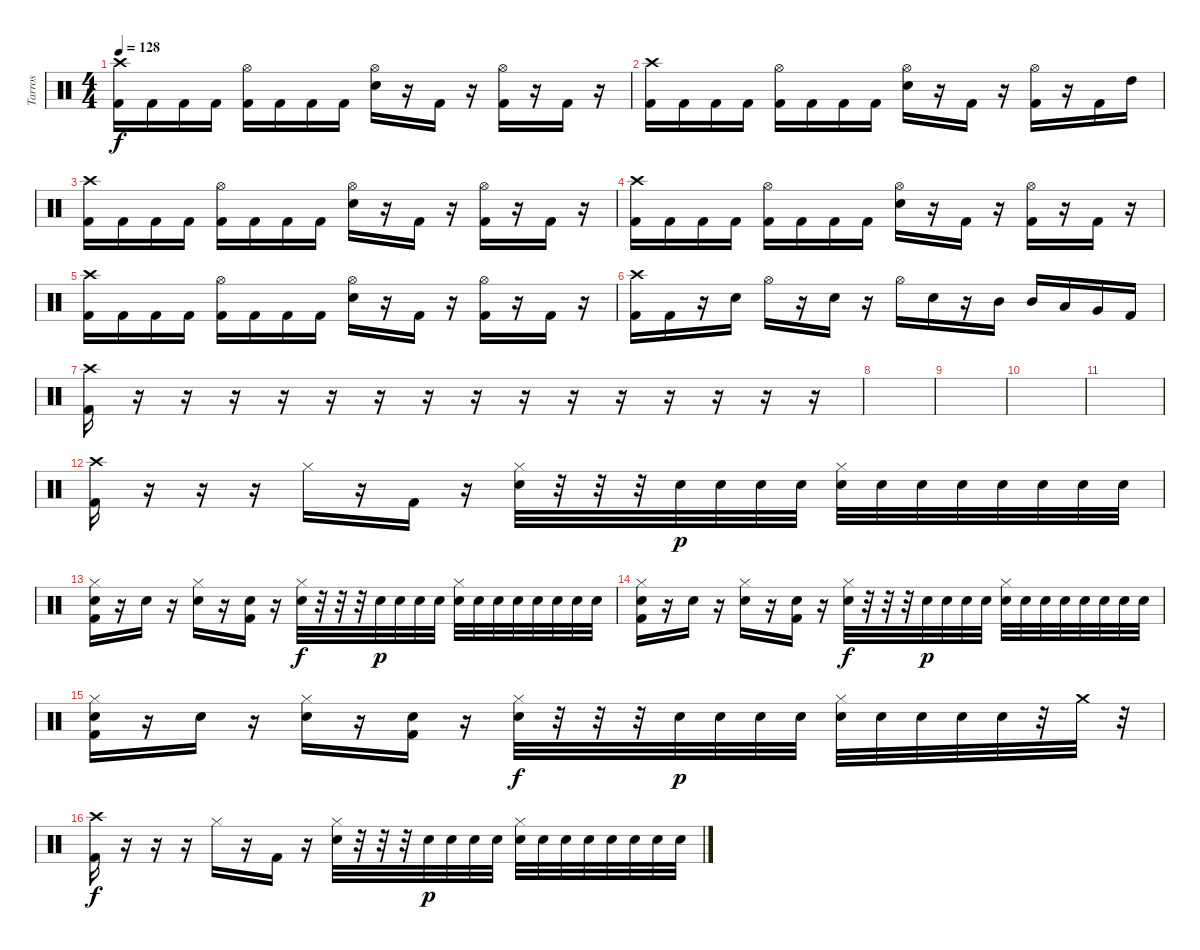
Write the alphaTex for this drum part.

\track ("Tarros" "Tarros") {instrument percussion}
\staff {score}
\articulation defaults
\ts (4 4)
\tempo 128
\clef neutral
\ks c
("Crash high (hit)" "Kick (hit) 2").16{dy f} "Kick (hit) 2".16 "Kick (hit) 2".16 "Kick (hit) 2".16 ("Hi-Hat (open)" "Kick (hit) 2").16 "Kick (hit) 2".16 "Kick (hit) 2".16 "Kick (hit) 2".16 ("Hi-Hat (open)" "Electric Snare (hit)").16 r.16 "Kick (hit) 2".16 r.16 ("Hi-Hat (open)" "Kick (hit) 2").16 r.16 "Kick (hit) 2".16 r.16 |
("Crash high (hit)" "Kick (hit) 2").16 "Kick (hit) 2".16 "Kick (hit) 2".16 "Kick (hit) 2".16 ("Hi-Hat (open)" "Kick (hit) 2").16 "Kick (hit) 2".16 "Kick (hit) 2".16 "Kick (hit) 2".16 ("Hi-Hat (open)" "Electric Snare (hit)").16 r.16 "Kick (hit) 2".16 r.16 ("Hi-Hat (open)" "Kick (hit) 2").16 r.16 "Kick (hit) 2".16 "High Tom (hit)".16 |
("Crash high (hit)" "Kick (hit) 2").16 "Kick (hit) 2".16 "Kick (hit) 2".16 "Kick (hit) 2".16 ("Hi-Hat (open)" "Kick (hit) 2").16 "Kick (hit) 2".16 "Kick (hit) 2".16 "Kick (hit) 2".16 ("Hi-Hat (open)" "Electric Snare (hit)").16 r.16 "Kick (hit) 2".16 r.16 ("Hi-Hat (open)" "Kick (hit) 2").16 r.16 "Kick (hit) 2".16 r.16 |
("Crash high (hit)" "Kick (hit) 2").16 "Kick (hit) 2".16 "Kick (hit) 2".16 "Kick (hit) 2".16 ("Hi-Hat (open)" "Kick (hit) 2").16 "Kick (hit) 2".16 "Kick (hit) 2".16 "Kick (hit) 2".16 ("Hi-Hat (open)" "Electric Snare (hit)").16 r.16 "Kick (hit) 2".16 r.16 ("Hi-Hat (open)" "Kick (hit) 2").16 r.16 "Kick (hit) 2".16 r.16 |
("Crash high (hit)" "Kick (hit) 2").16 "Kick (hit) 2".16 "Kick (hit) 2".16 "Kick (hit) 2".16 ("Hi-Hat (open)" "Kick (hit) 2").16 "Kick (hit) 2".16 "Kick (hit) 2".16 "Kick (hit) 2".16 ("Hi-Hat (open)" "Electric Snare (hit)").16 r.16 "Kick (hit) 2".16 r.16 ("Hi-Hat (open)" "Kick (hit) 2").16 r.16 "Kick (hit) 2".16 r.16 |
("Crash high (hit)" "Kick (hit) 2").16 "Kick (hit) 2".16 r.16 "Electric Snare (hit)".16 "Hi-Hat (open)".16 r.16 "Electric Snare (hit)".16 r.16 "Hi-Hat (open)".16 "Electric Snare (hit)".16 r.16 "Mid Tom (hit)".16 "Mid Tom (hit)".16 "Low Tom (hit)".16 "Very Low Tom (hit)".16 "Kick (hit) 2".16 |
("Crash high (hit)" "Kick (hit) 2").16 r.16 r.16 r.16 r.16 r.16 r.16 r.16 r.16 r.16 r.16 r.16 r.16 r.16 r.16 r.16 |
|
|
|
|
("Crash high (hit)" "Kick (hit) 2").16 r.16 r.16 r.16 "Hi-Hat (closed)".16 r.16 "Kick (hit) 2".16 r.16 ("Hi-Hat (closed)" "Electric Snare (hit)").32 r.32 r.32 r.32 "Electric Snare (hit)".32{dy p} "Electric Snare (hit)".32 "Electric Snare (hit)".32 "Electric Snare (hit)".32 ("Hi-Hat (closed)" "Electric Snare (hit)").32 "Electric Snare (hit)".32 "Electric Snare (hit)".32 "Electric Snare (hit)".32 "Electric Snare (hit)".32 "Electric Snare (hit)".32 "Electric Snare (hit)".32 "Electric Snare (hit)".32 |
("Hi-Hat (closed)" "Electric Snare (hit)" "Kick (hit) 2").16 r.16 "Electric Snare (hit)".16 r.16 ("Hi-Hat (closed)" "Electric Snare (hit)").16 r.16 ("Electric Snare (hit)" "Kick (hit) 2").16 r.16 ("Hi-Hat (closed)" "Electric Snare (hit)").32{dy f} r.32 r.32 r.32 "Electric Snare (hit)".32{dy p} "Electric Snare (hit)".32 "Electric Snare (hit)".32 "Electric Snare (hit)".32 ("Hi-Hat (closed)" "Electric Snare (hit)").32 "Electric Snare (hit)".32 "Electric Snare (hit)".32 "Electric Snare (hit)".32 "Electric Snare (hit)".32 "Electric Snare (hit)".32 "Electric Snare (hit)".32 "Electric Snare (hit)".32 |
("Hi-Hat (closed)" "Electric Snare (hit)" "Kick (hit) 2").16 r.16 "Electric Snare (hit)".16 r.16 ("Hi-Hat (closed)" "Electric Snare (hit)").16 r.16 ("Electric Snare (hit)" "Kick (hit) 2").16 r.16 ("Hi-Hat (closed)" "Electric Snare (hit)").32{dy f} r.32 r.32 r.32 "Electric Snare (hit)".32{dy p} "Electric Snare (hit)".32 "Electric Snare (hit)".32 "Electric Snare (hit)".32 ("Hi-Hat (closed)" "Electric Snare (hit)").32 "Electric Snare (hit)".32 "Electric Snare (hit)".32 "Electric Snare (hit)".32 "Electric Snare (hit)".32 "Electric Snare (hit)".32 "Electric Snare (hit)".32 "Electric Snare (hit)".32 |
("Hi-Hat (closed)" "Electric Snare (hit)" "Kick (hit) 2").16 r.16 "Electric Snare (hit)".16 r.16 ("Hi-Hat (closed)" "Electric Snare (hit)").16 r.16 ("Electric Snare (hit)" "Kick (hit) 2").16 r.16 ("Hi-Hat (closed)" "Electric Snare (hit)").32{dy f} r.32 r.32 r.32 "Electric Snare (hit)".32{dy p} "Electric Snare (hit)".32 "Electric Snare (hit)".32 "Electric Snare (hit)".32 ("Hi-Hat (closed)" "Electric Snare (hit)").32 "Electric Snare (hit)".32 "Electric Snare (hit)".32 "Electric Snare (hit)".32 "Electric Snare (hit)".32 r.32 "Crash medium (hit)".32 r.32 |
("Crash high (hit)" "Kick (hit) 2").16{dy f} r.16 r.16 r.16 "Hi-Hat (closed)".16 r.16 "Kick (hit) 2".16 r.16 ("Hi-Hat (closed)" "Electric Snare (hit)").32 r.32 r.32 r.32 "Electric Snare (hit)".32{dy p} "Electric Snare (hit)".32 "Electric Snare (hit)".32 "Electric Snare (hit)".32 ("Hi-Hat (closed)" "Electric Snare (hit)").32 "Electric Snare (hit)".32 "Electric Snare (hit)".32 "Electric Snare (hit)".32 "Electric Snare (hit)".32 "Electric Snare (hit)".32 "Electric Snare (hit)".32 "Electric Snare (hit)".32
